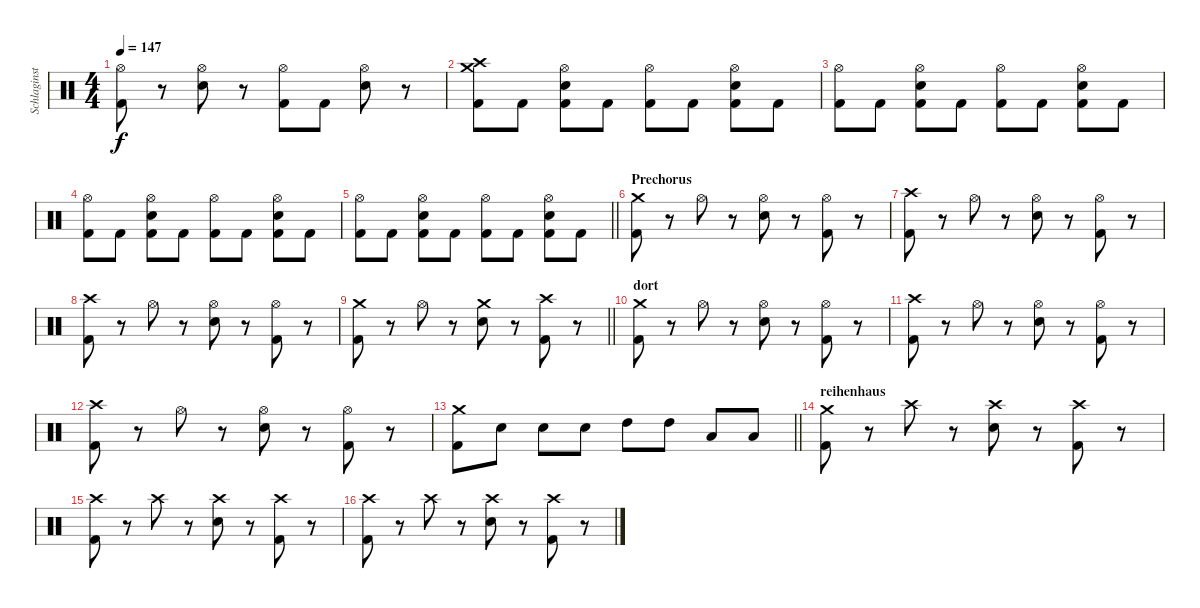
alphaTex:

\track ("Schlaginstrumente - Auswahl" "Schlaginst") {instrument percussion}
\staff {score}
\articulation defaults
\ts (4 4)
\tempo 147
\clef neutral
\ks c
("Hi-Hat (open)" "Kick (hit) 2").8{dy f} r.8 ("Hi-Hat (open)" "Snare (hit) 2").8 r.8 ("Hi-Hat (open)" "Kick (hit) 2").8 "Kick (hit) 2".8 ("Hi-Hat (open)" "Snare (hit) 2").8 r.8 |
("Crash medium (hit)" "Crash high (hit)" "Kick (hit) 2").8 "Kick (hit) 2".8 ("Hi-Hat (open)" "Snare (hit) 2" "Kick (hit) 2").8 "Kick (hit) 2".8 ("Hi-Hat (open)" "Kick (hit) 2").8 "Kick (hit) 2".8 ("Hi-Hat (open)" "Snare (hit) 2" "Kick (hit) 2").8 "Kick (hit) 2".8 |
("Hi-Hat (open)" "Kick (hit) 2").8 "Kick (hit) 2".8 ("Hi-Hat (open)" "Snare (hit) 2" "Kick (hit) 2").8 "Kick (hit) 2".8 ("Hi-Hat (open)" "Kick (hit) 2").8 "Kick (hit) 2".8 ("Hi-Hat (open)" "Snare (hit) 2" "Kick (hit) 2").8 "Kick (hit) 2".8 |
("Hi-Hat (open)" "Kick (hit) 2").8 "Kick (hit) 2".8 ("Hi-Hat (open)" "Snare (hit) 2" "Kick (hit) 2").8 "Kick (hit) 2".8 ("Hi-Hat (open)" "Kick (hit) 2").8 "Kick (hit) 2".8 ("Hi-Hat (open)" "Snare (hit) 2" "Kick (hit) 2").8 "Kick (hit) 2".8 |
\barLineRight lightlight
("Hi-Hat (open)" "Kick (hit) 2").8 "Kick (hit) 2".8 ("Hi-Hat (open)" "Snare (hit) 2" "Kick (hit) 2").8 "Kick (hit) 2".8 ("Hi-Hat (open)" "Kick (hit) 2").8 "Kick (hit) 2".8 ("Hi-Hat (open)" "Snare (hit) 2" "Kick (hit) 2").8 "Kick (hit) 2".8 |
\section ("" "Prechorus")
("Crash medium (hit)" "Kick (hit) 2").8 r.8 "Hi-Hat (open)".8 r.8 ("Hi-Hat (open)" "Snare (hit) 2").8 r.8 ("Hi-Hat (open)" "Kick (hit) 2").8 r.8 |
("Crash high (hit)" "Kick (hit) 2").8 r.8 "Hi-Hat (open)".8 r.8 ("Hi-Hat (open)" "Snare (hit) 2").8 r.8 ("Hi-Hat (open)" "Kick (hit) 2").8 r.8 |
("Crash high (hit)" "Kick (hit) 2").8 r.8 "Hi-Hat (open)".8 r.8 ("Hi-Hat (open)" "Snare (hit) 2").8 r.8 ("Hi-Hat (open)" "Kick (hit) 2").8 r.8 |
\barLineRight lightlight
("Crash medium (hit)" "Kick (hit) 2").8 r.8 "Hi-Hat (open)".8 r.8 ("Crash medium (hit)" "Snare (hit) 2").8 r.8 ("Crash high (hit)" "Kick (hit) 2").8 r.8 |
\section ("" "dort")
("Crash medium (hit)" "Kick (hit) 2").8 r.8 "Hi-Hat (open)".8 r.8 ("Hi-Hat (open)" "Snare (hit) 2").8 r.8 ("Hi-Hat (open)" "Kick (hit) 2").8 r.8 |
("Crash high (hit)" "Kick (hit) 2").8 r.8 "Hi-Hat (open)".8 r.8 ("Hi-Hat (open)" "Snare (hit) 2").8 r.8 ("Hi-Hat (open)" "Kick (hit) 2").8 r.8 |
("Crash high (hit)" "Kick (hit) 2").8 r.8 "Hi-Hat (open)".8 r.8 ("Hi-Hat (open)" "Snare (hit) 2").8 r.8 ("Hi-Hat (open)" "Kick (hit) 2").8 r.8 |
\barLineRight lightlight
("Crash medium (hit)" "Kick (hit) 2").8 "Snare (hit) 2".8 "Snare (hit) 2".8 "Snare (hit) 2".8 "High Tom (hit)".8 "High Tom (hit)".8 "Low Tom (hit)".8 "Low Tom (hit)".8 |
\section ("" "reihenhaus")
("Crash medium (hit)" "Kick (hit) 2").8 r.8 "Crash high (hit)".8 r.8 ("Crash high (hit)" "Snare (hit) 2").8 r.8 ("Crash high (hit)" "Kick (hit) 2").8 r.8 |
("Crash high (hit)" "Kick (hit) 2").8 r.8 "Crash high (hit)".8 r.8 ("Crash high (hit)" "Snare (hit) 2").8 r.8 ("Crash high (hit)" "Kick (hit) 2").8 r.8 |
("Crash high (hit)" "Kick (hit) 2").8 r.8 "Crash high (hit)".8 r.8 ("Crash high (hit)" "Snare (hit) 2").8 r.8 ("Crash high (hit)" "Kick (hit) 2").8 r.8
